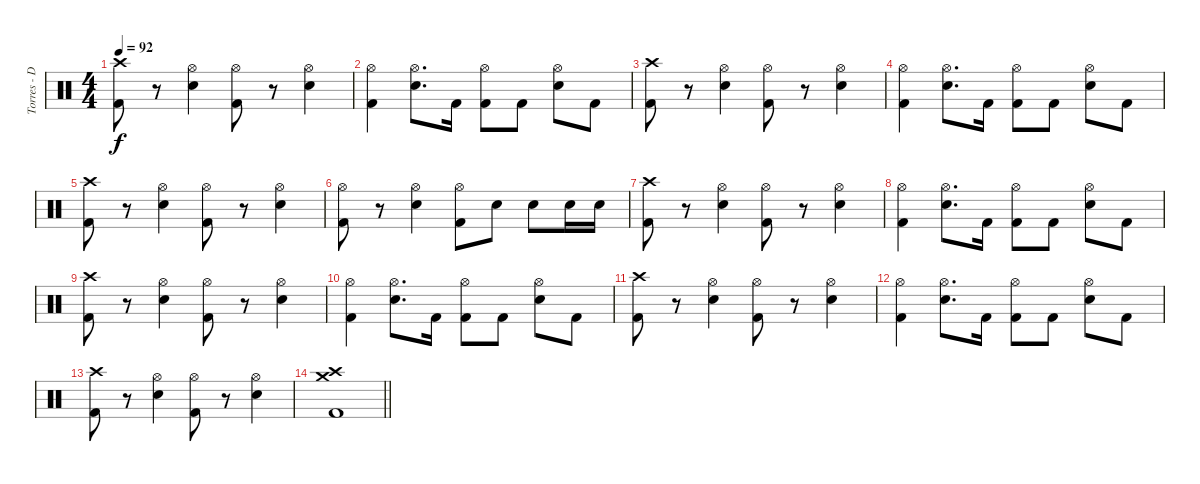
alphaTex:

\track ("Torres - Drums" "Torres - D") {instrument percussion}
\staff {score}
\articulation defaults
\ts (4 4)
\tempo 92
\clef neutral
\ks c
("Kick (hit) 2" "Crash high (hit)").8{dy f} r.8 ("Electric Snare (hit)" "Hi-Hat (open)").4 ("Kick (hit) 2" "Hi-Hat (open)").8 r.8 ("Electric Snare (hit)" "Hi-Hat (open)").4 |
("Kick (hit) 2" "Hi-Hat (open)").4 ("Electric Snare (hit)" "Hi-Hat (open)").8{d} "Kick (hit) 2".16 ("Kick (hit) 2" "Hi-Hat (open)").8 "Kick (hit) 2".8 ("Electric Snare (hit)" "Hi-Hat (open)").8 "Kick (hit) 2".8 |
("Kick (hit) 2" "Crash high (hit)").8 r.8 ("Electric Snare (hit)" "Hi-Hat (open)").4 ("Kick (hit) 2" "Hi-Hat (open)").8 r.8 ("Electric Snare (hit)" "Hi-Hat (open)").4 |
("Kick (hit) 2" "Hi-Hat (open)").4 ("Electric Snare (hit)" "Hi-Hat (open)").8{d} "Kick (hit) 2".16 ("Kick (hit) 2" "Hi-Hat (open)").8 "Kick (hit) 2".8 ("Electric Snare (hit)" "Hi-Hat (open)").8 "Kick (hit) 2".8 |
("Kick (hit) 2" "Crash high (hit)").8 r.8 ("Electric Snare (hit)" "Hi-Hat (open)").4 ("Kick (hit) 2" "Hi-Hat (open)").8 r.8 ("Electric Snare (hit)" "Hi-Hat (open)").4 |
("Kick (hit) 2" "Hi-Hat (open)").8 r.8 ("Electric Snare (hit)" "Hi-Hat (open)").4 ("Kick (hit) 2" "Hi-Hat (open)").8 "Electric Snare (hit)".8 "Electric Snare (hit)".8 "Electric Snare (hit)".16 "Electric Snare (hit)".16 |
("Kick (hit) 2" "Crash high (hit)").8 r.8 ("Electric Snare (hit)" "Hi-Hat (open)").4 ("Kick (hit) 2" "Hi-Hat (open)").8 r.8 ("Electric Snare (hit)" "Hi-Hat (open)").4 |
("Kick (hit) 2" "Hi-Hat (open)").4 ("Electric Snare (hit)" "Hi-Hat (open)").8{d} "Kick (hit) 2".16 ("Kick (hit) 2" "Hi-Hat (open)").8 "Kick (hit) 2".8 ("Electric Snare (hit)" "Hi-Hat (open)").8 "Kick (hit) 2".8 |
("Kick (hit) 2" "Crash high (hit)").8 r.8 ("Electric Snare (hit)" "Hi-Hat (open)").4 ("Kick (hit) 2" "Hi-Hat (open)").8 r.8 ("Electric Snare (hit)" "Hi-Hat (open)").4 |
("Kick (hit) 2" "Hi-Hat (open)").4 ("Electric Snare (hit)" "Hi-Hat (open)").8{d} "Kick (hit) 2".16 ("Kick (hit) 2" "Hi-Hat (open)").8 "Kick (hit) 2".8 ("Electric Snare (hit)" "Hi-Hat (open)").8 "Kick (hit) 2".8 |
("Kick (hit) 2" "Crash high (hit)").8 r.8 ("Electric Snare (hit)" "Hi-Hat (open)").4 ("Kick (hit) 2" "Hi-Hat (open)").8 r.8 ("Electric Snare (hit)" "Hi-Hat (open)").4 |
("Kick (hit) 2" "Hi-Hat (open)").4 ("Electric Snare (hit)" "Hi-Hat (open)").8{d} "Kick (hit) 2".16 ("Kick (hit) 2" "Hi-Hat (open)").8 "Kick (hit) 2".8 ("Electric Snare (hit)" "Hi-Hat (open)").8 "Kick (hit) 2".8 |
("Kick (hit) 2" "Crash high (hit)").8 r.8 ("Electric Snare (hit)" "Hi-Hat (open)").4 ("Kick (hit) 2" "Hi-Hat (open)").8 r.8 ("Electric Snare (hit)" "Hi-Hat (open)").4 |
\barLineRight lightlight
("Kick (hit) 2" "Crash medium (hit)" "Crash high (hit)").1
